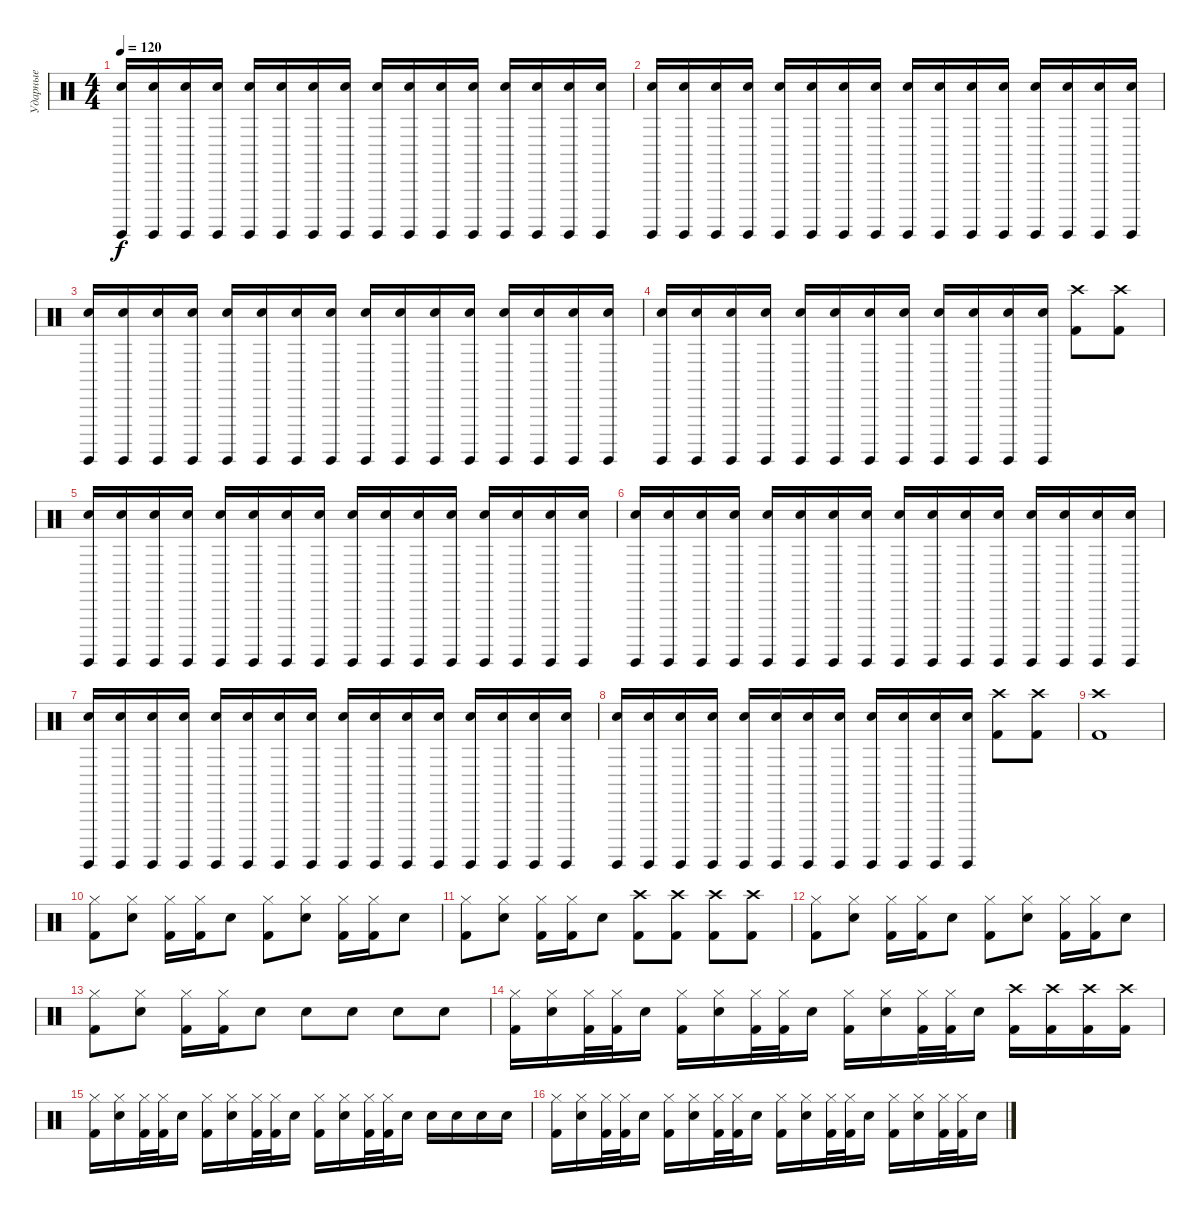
\track ("Ударные" "Ударные") {instrument percussion}
\staff {score}
\articulation defaults
\ts (4 4)
\tempo 120
\clef neutral
\ks c
("Surdo (hit)" "Electric Snare (hit)").16{dy f} ("Surdo (hit)" "Electric Snare (hit)").16 ("Surdo (hit)" "Electric Snare (hit)").16 ("Surdo (hit)" "Electric Snare (hit)").16 ("Surdo (hit)" "Electric Snare (hit)").16 ("Surdo (hit)" "Electric Snare (hit)").16 ("Surdo (hit)" "Electric Snare (hit)").16 ("Surdo (hit)" "Electric Snare (hit)").16 ("Surdo (hit)" "Electric Snare (hit)").16 ("Surdo (hit)" "Electric Snare (hit)").16 ("Surdo (hit)" "Electric Snare (hit)").16 ("Surdo (hit)" "Electric Snare (hit)").16 ("Surdo (hit)" "Electric Snare (hit)").16 ("Surdo (hit)" "Electric Snare (hit)").16 ("Surdo (hit)" "Electric Snare (hit)").16 ("Surdo (hit)" "Electric Snare (hit)").16 |
("Surdo (hit)" "Electric Snare (hit)").16 ("Surdo (hit)" "Electric Snare (hit)").16 ("Surdo (hit)" "Electric Snare (hit)").16 ("Surdo (hit)" "Electric Snare (hit)").16 ("Surdo (hit)" "Electric Snare (hit)").16 ("Surdo (hit)" "Electric Snare (hit)").16 ("Surdo (hit)" "Electric Snare (hit)").16 ("Surdo (hit)" "Electric Snare (hit)").16 ("Surdo (hit)" "Electric Snare (hit)").16 ("Surdo (hit)" "Electric Snare (hit)").16 ("Surdo (hit)" "Electric Snare (hit)").16 ("Surdo (hit)" "Electric Snare (hit)").16 ("Surdo (hit)" "Electric Snare (hit)").16 ("Surdo (hit)" "Electric Snare (hit)").16 ("Surdo (hit)" "Electric Snare (hit)").16 ("Surdo (hit)" "Electric Snare (hit)").16 |
("Surdo (hit)" "Electric Snare (hit)").16 ("Surdo (hit)" "Electric Snare (hit)").16 ("Surdo (hit)" "Electric Snare (hit)").16 ("Surdo (hit)" "Electric Snare (hit)").16 ("Surdo (hit)" "Electric Snare (hit)").16 ("Surdo (hit)" "Electric Snare (hit)").16 ("Surdo (hit)" "Electric Snare (hit)").16 ("Surdo (hit)" "Electric Snare (hit)").16 ("Surdo (hit)" "Electric Snare (hit)").16 ("Surdo (hit)" "Electric Snare (hit)").16 ("Surdo (hit)" "Electric Snare (hit)").16 ("Surdo (hit)" "Electric Snare (hit)").16 ("Surdo (hit)" "Electric Snare (hit)").16 ("Surdo (hit)" "Electric Snare (hit)").16 ("Surdo (hit)" "Electric Snare (hit)").16 ("Surdo (hit)" "Electric Snare (hit)").16 |
("Surdo (hit)" "Electric Snare (hit)").16 ("Surdo (hit)" "Electric Snare (hit)").16 ("Surdo (hit)" "Electric Snare (hit)").16 ("Surdo (hit)" "Electric Snare (hit)").16 ("Surdo (hit)" "Electric Snare (hit)").16 ("Surdo (hit)" "Electric Snare (hit)").16 ("Surdo (hit)" "Electric Snare (hit)").16 ("Surdo (hit)" "Electric Snare (hit)").16 ("Surdo (hit)" "Electric Snare (hit)").16 ("Surdo (hit)" "Electric Snare (hit)").16 ("Surdo (hit)" "Electric Snare (hit)").16 ("Surdo (hit)" "Electric Snare (hit)").16 ("Crash high (hit)" "Kick (hit) 2").8 ("Crash high (hit)" "Kick (hit) 2").8 |
("Surdo (hit)" "Electric Snare (hit)").16 ("Surdo (hit)" "Electric Snare (hit)").16 ("Surdo (hit)" "Electric Snare (hit)").16 ("Surdo (hit)" "Electric Snare (hit)").16 ("Surdo (hit)" "Electric Snare (hit)").16 ("Surdo (hit)" "Electric Snare (hit)").16 ("Surdo (hit)" "Electric Snare (hit)").16 ("Surdo (hit)" "Electric Snare (hit)").16 ("Surdo (hit)" "Electric Snare (hit)").16 ("Surdo (hit)" "Electric Snare (hit)").16 ("Surdo (hit)" "Electric Snare (hit)").16 ("Surdo (hit)" "Electric Snare (hit)").16 ("Surdo (hit)" "Electric Snare (hit)").16 ("Surdo (hit)" "Electric Snare (hit)").16 ("Surdo (hit)" "Electric Snare (hit)").16 ("Surdo (hit)" "Electric Snare (hit)").16 |
("Surdo (hit)" "Electric Snare (hit)").16 ("Surdo (hit)" "Electric Snare (hit)").16 ("Surdo (hit)" "Electric Snare (hit)").16 ("Surdo (hit)" "Electric Snare (hit)").16 ("Surdo (hit)" "Electric Snare (hit)").16 ("Surdo (hit)" "Electric Snare (hit)").16 ("Surdo (hit)" "Electric Snare (hit)").16 ("Surdo (hit)" "Electric Snare (hit)").16 ("Surdo (hit)" "Electric Snare (hit)").16 ("Surdo (hit)" "Electric Snare (hit)").16 ("Surdo (hit)" "Electric Snare (hit)").16 ("Surdo (hit)" "Electric Snare (hit)").16 ("Surdo (hit)" "Electric Snare (hit)").16 ("Surdo (hit)" "Electric Snare (hit)").16 ("Surdo (hit)" "Electric Snare (hit)").16 ("Surdo (hit)" "Electric Snare (hit)").16 |
("Surdo (hit)" "Electric Snare (hit)").16 ("Surdo (hit)" "Electric Snare (hit)").16 ("Surdo (hit)" "Electric Snare (hit)").16 ("Surdo (hit)" "Electric Snare (hit)").16 ("Surdo (hit)" "Electric Snare (hit)").16 ("Surdo (hit)" "Electric Snare (hit)").16 ("Surdo (hit)" "Electric Snare (hit)").16 ("Surdo (hit)" "Electric Snare (hit)").16 ("Surdo (hit)" "Electric Snare (hit)").16 ("Surdo (hit)" "Electric Snare (hit)").16 ("Surdo (hit)" "Electric Snare (hit)").16 ("Surdo (hit)" "Electric Snare (hit)").16 ("Surdo (hit)" "Electric Snare (hit)").16 ("Surdo (hit)" "Electric Snare (hit)").16 ("Surdo (hit)" "Electric Snare (hit)").16 ("Surdo (hit)" "Electric Snare (hit)").16 |
("Surdo (hit)" "Electric Snare (hit)").16 ("Surdo (hit)" "Electric Snare (hit)").16 ("Surdo (hit)" "Electric Snare (hit)").16 ("Surdo (hit)" "Electric Snare (hit)").16 ("Surdo (hit)" "Electric Snare (hit)").16 ("Surdo (hit)" "Electric Snare (hit)").16 ("Surdo (hit)" "Electric Snare (hit)").16 ("Surdo (hit)" "Electric Snare (hit)").16 ("Surdo (hit)" "Electric Snare (hit)").16 ("Surdo (hit)" "Electric Snare (hit)").16 ("Surdo (hit)" "Electric Snare (hit)").16 ("Surdo (hit)" "Electric Snare (hit)").16 ("Crash high (hit)" "Kick (hit) 2").8 ("Crash high (hit)" "Kick (hit) 2").8 |
("Crash high (hit)" "Kick (hit) 2").1 |
("Hi-Hat (closed)" "Kick (hit) 2").8 ("Hi-Hat (closed)" "Electric Snare (hit)").8 ("Hi-Hat (closed)" "Kick (hit) 2").16 ("Hi-Hat (closed)" "Kick (hit) 2").16 "Electric Snare (hit)".8 ("Hi-Hat (closed)" "Kick (hit) 2").8 ("Hi-Hat (closed)" "Electric Snare (hit)").8 ("Hi-Hat (closed)" "Kick (hit) 2").16 ("Hi-Hat (closed)" "Kick (hit) 2").16 "Electric Snare (hit)".8 |
("Hi-Hat (closed)" "Kick (hit) 2").8 ("Hi-Hat (closed)" "Electric Snare (hit)").8 ("Hi-Hat (closed)" "Kick (hit) 2").16 ("Hi-Hat (closed)" "Kick (hit) 2").16 "Electric Snare (hit)".8 ("Crash high (hit)" "Kick (hit) 2").8 ("Kick (hit) 2" "Crash high (hit)").8 ("Crash high (hit)" "Kick (hit) 2").8 ("Kick (hit) 2" "Crash high (hit)").8 |
("Hi-Hat (closed)" "Kick (hit) 2").8 ("Hi-Hat (closed)" "Electric Snare (hit)").8 ("Hi-Hat (closed)" "Kick (hit) 2").16 ("Hi-Hat (closed)" "Kick (hit) 2").16 "Electric Snare (hit)".8 ("Hi-Hat (closed)" "Kick (hit) 2").8 ("Hi-Hat (closed)" "Electric Snare (hit)").8 ("Hi-Hat (closed)" "Kick (hit) 2").16 ("Hi-Hat (closed)" "Kick (hit) 2").16 "Electric Snare (hit)".8 |
("Hi-Hat (closed)" "Kick (hit) 2").8 ("Hi-Hat (closed)" "Electric Snare (hit)").8 ("Hi-Hat (closed)" "Kick (hit) 2").16 ("Hi-Hat (closed)" "Kick (hit) 2").16 "Electric Snare (hit)".8 "Electric Snare (hit)".8 "Electric Snare (hit)".8 "Electric Snare (hit)".8 "Electric Snare (hit)".8 |
("Hi-Hat (closed)" "Kick (hit) 2").16 ("Hi-Hat (closed)" "Electric Snare (hit)").16 ("Hi-Hat (closed)" "Kick (hit) 2").32 ("Hi-Hat (closed)" "Kick (hit) 2").32 "Electric Snare (hit)".16 ("Hi-Hat (closed)" "Kick (hit) 2").16 ("Hi-Hat (closed)" "Electric Snare (hit)").16 ("Hi-Hat (closed)" "Kick (hit) 2").32 ("Hi-Hat (closed)" "Kick (hit) 2").32 "Electric Snare (hit)".16 ("Hi-Hat (closed)" "Kick (hit) 2").16 ("Hi-Hat (closed)" "Electric Snare (hit)").16 ("Hi-Hat (closed)" "Kick (hit) 2").32 ("Hi-Hat (closed)" "Kick (hit) 2").32 "Electric Snare (hit)".16 ("Crash high (hit)" "Kick (hit) 2").16 ("Crash high (hit)" "Kick (hit) 2").16 ("Crash high (hit)" "Kick (hit) 2").16 ("Crash high (hit)" "Kick (hit) 2").16 |
("Hi-Hat (closed)" "Kick (hit) 2").16 ("Hi-Hat (closed)" "Electric Snare (hit)").16 ("Hi-Hat (closed)" "Kick (hit) 2").32 ("Hi-Hat (closed)" "Kick (hit) 2").32 "Electric Snare (hit)".16 ("Hi-Hat (closed)" "Kick (hit) 2").16 ("Hi-Hat (closed)" "Electric Snare (hit)").16 ("Hi-Hat (closed)" "Kick (hit) 2").32 ("Hi-Hat (closed)" "Kick (hit) 2").32 "Electric Snare (hit)".16 ("Hi-Hat (closed)" "Kick (hit) 2").16 ("Hi-Hat (closed)" "Electric Snare (hit)").16 ("Hi-Hat (closed)" "Kick (hit) 2").32 ("Hi-Hat (closed)" "Kick (hit) 2").32 "Electric Snare (hit)".16 "Electric Snare (hit)".16 "Electric Snare (hit)".16 "Electric Snare (hit)".16 "Electric Snare (hit)".16 |
("Hi-Hat (closed)" "Kick (hit) 2").16 ("Hi-Hat (closed)" "Electric Snare (hit)").16 ("Hi-Hat (closed)" "Kick (hit) 2").32 ("Hi-Hat (closed)" "Kick (hit) 2").32 "Electric Snare (hit)".16 ("Hi-Hat (closed)" "Kick (hit) 2").16 ("Hi-Hat (closed)" "Electric Snare (hit)").16 ("Hi-Hat (closed)" "Kick (hit) 2").32 ("Hi-Hat (closed)" "Kick (hit) 2").32 "Electric Snare (hit)".16 ("Hi-Hat (closed)" "Kick (hit) 2").16 ("Hi-Hat (closed)" "Electric Snare (hit)").16 ("Hi-Hat (closed)" "Kick (hit) 2").32 ("Hi-Hat (closed)" "Kick (hit) 2").32 "Electric Snare (hit)".16 ("Hi-Hat (closed)" "Kick (hit) 2").16 ("Hi-Hat (closed)" "Electric Snare (hit)").16 ("Hi-Hat (closed)" "Kick (hit) 2").32 ("Hi-Hat (closed)" "Kick (hit) 2").32 "Electric Snare (hit)".16
